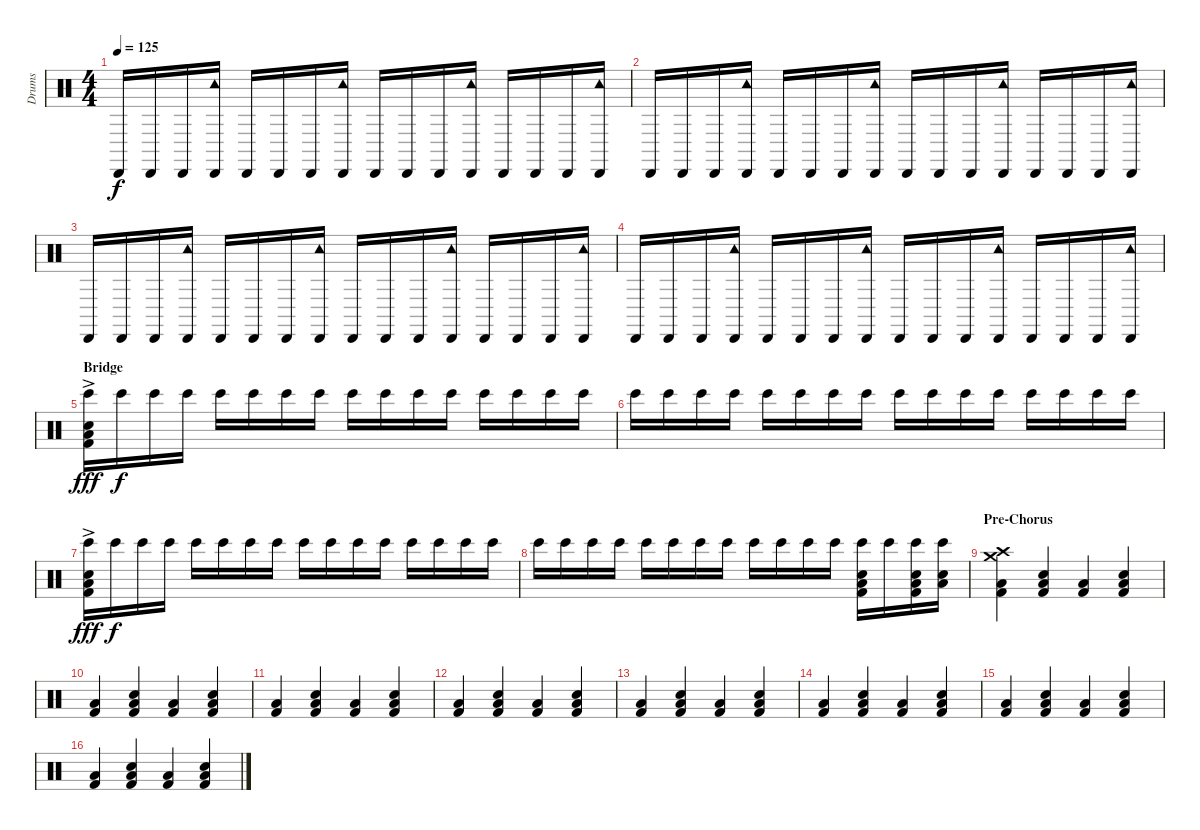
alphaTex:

\track ("Drums" "Drums") {instrument percussion}
\staff {score}
\articulation defaults
\ts (4 4)
\tempo 125
\clef neutral
\ks c "Cabasa (hit)".16{dy f} "Cabasa (hit)".16 "Cabasa (hit)".16
("Tambourine (hit)" "Cabasa (hit)").16 "Cabasa (hit)".16 "Cabasa (hit)".16 "Cabasa (hit)".16 ("Tambourine (hit)" "Cabasa (hit)").16 "Cabasa (hit)".16 "Cabasa (hit)".16 "Cabasa (hit)".16 ("Tambourine (hit)" "Cabasa (hit)").16 "Cabasa (hit)".16 "Cabasa (hit)".16 "Cabasa (hit)".16 ("Tambourine (hit)" "Cabasa (hit)").16 |
"Cabasa (hit)".16 "Cabasa (hit)".16 "Cabasa (hit)".16 ("Tambourine (hit)" "Cabasa (hit)").16 "Cabasa (hit)".16 "Cabasa (hit)".16 "Cabasa (hit)".16 ("Tambourine (hit)" "Cabasa (hit)").16 "Cabasa (hit)".16 "Cabasa (hit)".16 "Cabasa (hit)".16 ("Tambourine (hit)" "Cabasa (hit)").16 "Cabasa (hit)".16 "Cabasa (hit)".16 "Cabasa (hit)".16 ("Tambourine (hit)" "Cabasa (hit)").16 |
"Cabasa (hit)".16 "Cabasa (hit)".16 "Cabasa (hit)".16 ("Tambourine (hit)" "Cabasa (hit)").16 "Cabasa (hit)".16 "Cabasa (hit)".16 "Cabasa (hit)".16 ("Tambourine (hit)" "Cabasa (hit)").16 "Cabasa (hit)".16 "Cabasa (hit)".16 "Cabasa (hit)".16 ("Tambourine (hit)" "Cabasa (hit)").16 "Cabasa (hit)".16 "Cabasa (hit)".16 "Cabasa (hit)".16 ("Tambourine (hit)" "Cabasa (hit)").16 |
"Cabasa (hit)".16 "Cabasa (hit)".16 "Cabasa (hit)".16 ("Tambourine (hit)" "Cabasa (hit)").16 "Cabasa (hit)".16 "Cabasa (hit)".16 "Cabasa (hit)".16 ("Tambourine (hit)" "Cabasa (hit)").16 "Cabasa (hit)".16 "Cabasa (hit)".16 "Cabasa (hit)".16 ("Tambourine (hit)" "Cabasa (hit)").16 "Cabasa (hit)".16 "Cabasa (hit)".16 "Cabasa (hit)".16 ("Tambourine (hit)" "Cabasa (hit)").16 |
\section ("" "Bridge")
("Snare (hit) 2"{ac} "Bongo High (hit)" "Low Floor Tom (hit)"{ac} "Kick (hit) 2"{ac}).16{dy fff} "Bongo High (hit)".16{dy f} "Bongo High (hit)".16 "Bongo High (hit)".16 "Bongo High (hit)".16 "Bongo High (hit)".16 "Bongo High (hit)".16 "Bongo High (hit)".16 "Bongo High (hit)".16 "Bongo High (hit)".16 "Bongo High (hit)".16 "Bongo High (hit)".16 "Bongo High (hit)".16 "Bongo High (hit)".16 "Bongo High (hit)".16 "Bongo High (hit)".16 |
"Bongo High (hit)".16 "Bongo High (hit)".16 "Bongo High (hit)".16 "Bongo High (hit)".16 "Bongo High (hit)".16 "Bongo High (hit)".16 "Bongo High (hit)".16 "Bongo High (hit)".16 "Bongo High (hit)".16 "Bongo High (hit)".16 "Bongo High (hit)".16 "Bongo High (hit)".16 "Bongo High (hit)".16 "Bongo High (hit)".16 "Bongo High (hit)".16 "Bongo High (hit)".16 |
("Snare (hit) 2"{ac} "Bongo High (hit)" "Low Floor Tom (hit)"{ac} "Kick (hit) 2"{ac}).16{dy fff} "Bongo High (hit)".16{dy f} "Bongo High (hit)".16 "Bongo High (hit)".16 "Bongo High (hit)".16 "Bongo High (hit)".16 "Bongo High (hit)".16 "Bongo High (hit)".16 "Bongo High (hit)".16 "Bongo High (hit)".16 "Bongo High (hit)".16 "Bongo High (hit)".16 "Bongo High (hit)".16 "Bongo High (hit)".16 "Bongo High (hit)".16 "Bongo High (hit)".16 |
"Bongo High (hit)".16 "Bongo High (hit)".16 "Bongo High (hit)".16 "Bongo High (hit)".16 "Bongo High (hit)".16 "Bongo High (hit)".16 "Bongo High (hit)".16 "Bongo High (hit)".16 "Bongo High (hit)".16 "Bongo High (hit)".16 "Bongo High (hit)".16 "Bongo High (hit)".16 ("Snare (hit) 2" "Bongo High (hit)" "Low Floor Tom (hit)" "Kick (hit) 2").16 "Bongo High (hit)".16 ("Snare (hit) 2" "Bongo High (hit)" "Low Floor Tom (hit)" "Kick (hit) 2").16 ("Snare (hit) 2" "Bongo High (hit)" "Low Floor Tom (hit)").16 |
\section ("" "Pre-Chorus")
("Crash high (hit)" "Crash medium (hit)" "Low Floor Tom (hit)" "Kick (hit) 2").4 ("Snare (hit) 2" "Low Floor Tom (hit)" "Kick (hit) 2").4 ("Low Floor Tom (hit)" "Kick (hit) 2").4 ("Snare (hit) 2" "Low Floor Tom (hit)" "Kick (hit) 2").4 |
("Low Floor Tom (hit)" "Kick (hit) 2").4 ("Snare (hit) 2" "Low Floor Tom (hit)" "Kick (hit) 2").4 ("Low Floor Tom (hit)" "Kick (hit) 2").4 ("Snare (hit) 2" "Low Floor Tom (hit)" "Kick (hit) 2").4 |
("Low Floor Tom (hit)" "Kick (hit) 2").4 ("Snare (hit) 2" "Low Floor Tom (hit)" "Kick (hit) 2").4 ("Low Floor Tom (hit)" "Kick (hit) 2").4 ("Snare (hit) 2" "Low Floor Tom (hit)" "Kick (hit) 2").4 |
("Low Floor Tom (hit)" "Kick (hit) 2").4 ("Snare (hit) 2" "Low Floor Tom (hit)" "Kick (hit) 2").4 ("Low Floor Tom (hit)" "Kick (hit) 2").4 ("Snare (hit) 2" "Low Floor Tom (hit)" "Kick (hit) 2").4 |
("Low Floor Tom (hit)" "Kick (hit) 2").4 ("Snare (hit) 2" "Low Floor Tom (hit)" "Kick (hit) 2").4 ("Low Floor Tom (hit)" "Kick (hit) 2").4 ("Snare (hit) 2" "Low Floor Tom (hit)" "Kick (hit) 2").4 |
("Low Floor Tom (hit)" "Kick (hit) 2").4 ("Snare (hit) 2" "Low Floor Tom (hit)" "Kick (hit) 2").4 ("Low Floor Tom (hit)" "Kick (hit) 2").4 ("Snare (hit) 2" "Low Floor Tom (hit)" "Kick (hit) 2").4 |
("Low Floor Tom (hit)" "Kick (hit) 2").4 ("Snare (hit) 2" "Low Floor Tom (hit)" "Kick (hit) 2").4 ("Low Floor Tom (hit)" "Kick (hit) 2").4 ("Snare (hit) 2" "Low Floor Tom (hit)" "Kick (hit) 2").4 |
("Low Floor Tom (hit)" "Kick (hit) 2").4 ("Snare (hit) 2" "Low Floor Tom (hit)" "Kick (hit) 2").4 ("Low Floor Tom (hit)" "Kick (hit) 2").4 ("Snare (hit) 2" "Low Floor Tom (hit)" "Kick (hit) 2").4
